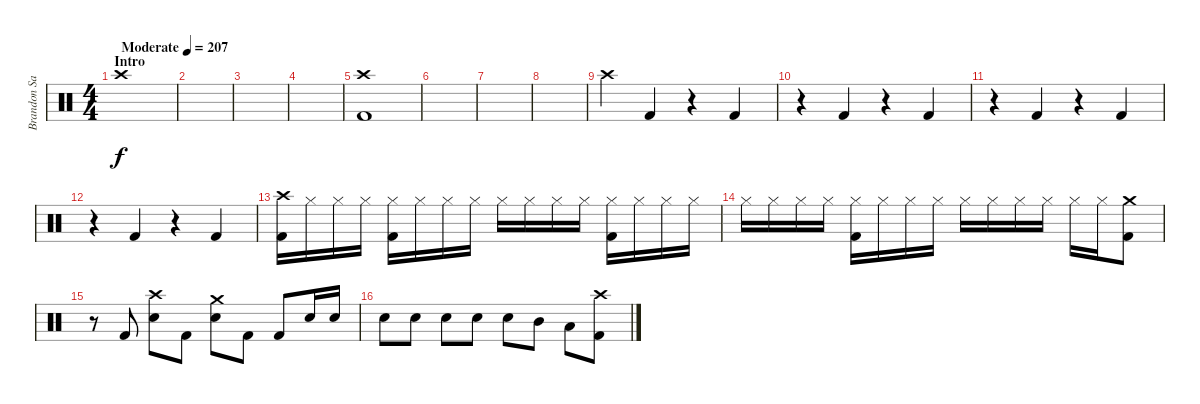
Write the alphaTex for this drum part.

\track ("Brandon Saller" "Brandon Sa") {instrument percussion}
\staff {score}
\articulation defaults
\ts (4 4)
\section ("" "Intro")
\tempo (207 "Moderate")
\clef neutral
\ks c "Crash high (hit)".1{dy f}
|
|
|
|
("Crash high (hit)" "Kick (hit) 2").1 |
|
|
|
"Crash high (hit)".4 "Kick (hit) 2".4 r.4 "Kick (hit) 2".4 |
r.4 "Kick (hit) 2".4 r.4 "Kick (hit) 2".4 |
r.4 "Kick (hit) 2".4 r.4 "Kick (hit) 2".4 |
r.4 "Kick (hit) 2".4 r.4 "Kick (hit) 2".4 |
("Crash high (hit)" "Kick (hit) 2").16 "Hi-Hat (closed)".16 "Hi-Hat (closed)".16 "Hi-Hat (closed)".16 ("Hi-Hat (closed)" "Kick (hit) 2").16 "Hi-Hat (closed)".16 "Hi-Hat (closed)".16 "Hi-Hat (closed)".16 "Hi-Hat (closed)".16 "Hi-Hat (closed)".16 "Hi-Hat (closed)".16 "Hi-Hat (closed)".16 ("Hi-Hat (closed)" "Kick (hit) 2").16 "Hi-Hat (closed)".16 "Hi-Hat (closed)".16 "Hi-Hat (closed)".16 |
"Hi-Hat (closed)".16 "Hi-Hat (closed)".16 "Hi-Hat (closed)".16 "Hi-Hat (closed)".16 ("Hi-Hat (closed)" "Kick (hit) 2").16 "Hi-Hat (closed)".16 "Hi-Hat (closed)".16 "Hi-Hat (closed)".16 "Hi-Hat (closed)".16 "Hi-Hat (closed)".16 "Hi-Hat (closed)".16 "Hi-Hat (closed)".16 "Hi-Hat (closed)".16 "Hi-Hat (closed)".16 ("Crash medium (hit)" "Kick (hit) 2").8 |
r.8 "Kick (hit) 2".8 ("Crash high (hit)" "Electric Snare (hit)").8 "Kick (hit) 2".8 ("Crash medium (hit)" "Electric Snare (hit)").8 "Kick (hit) 2".8 "Kick (hit) 2".8 "Electric Snare (hit)".16 "Electric Snare (hit)".16 |
"Electric Snare (hit)".8 "Electric Snare (hit)".8 "Electric Snare (hit)".8 "Electric Snare (hit)".8 "Electric Snare (hit)".8 "Mid Tom (hit)".8 "Low Tom (hit)".8 ("Crash high (hit)" "Kick (hit) 2").8
